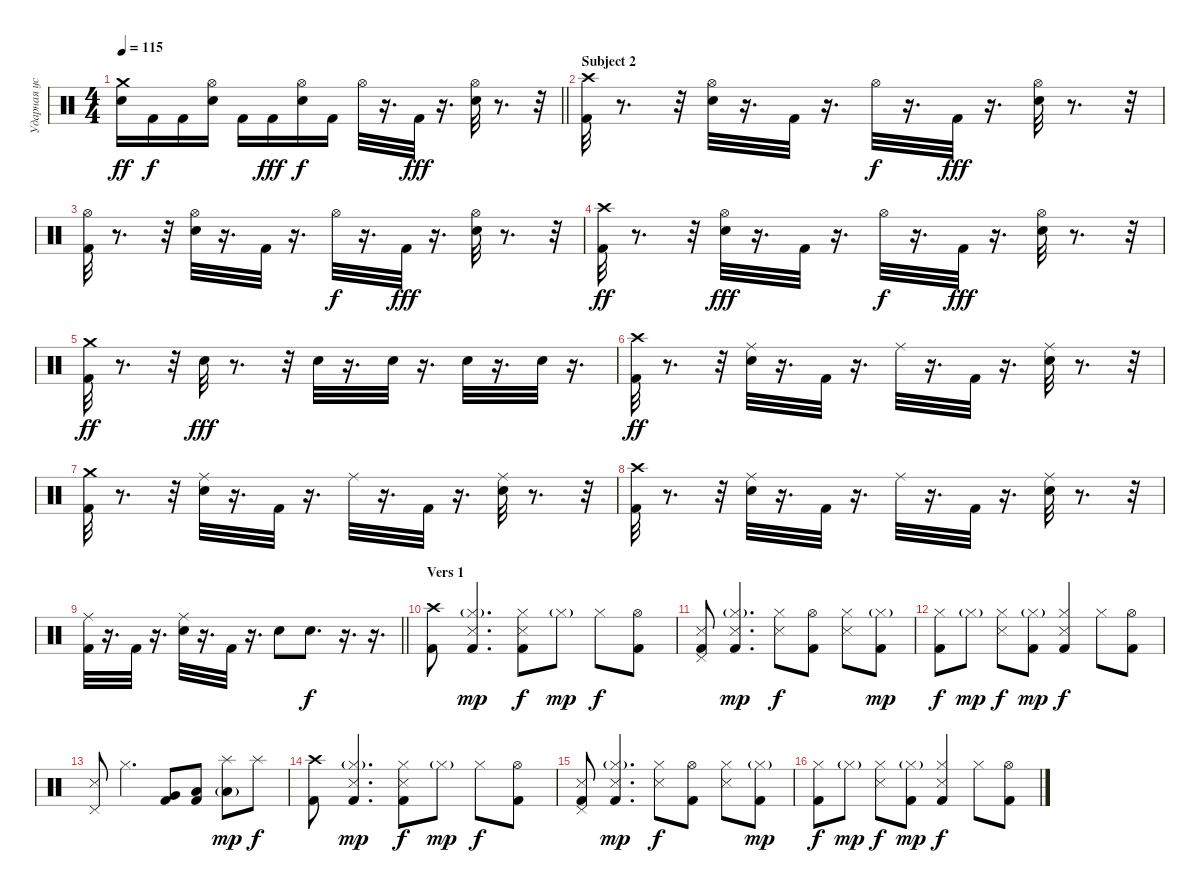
\track ("Ударная установка" "Ударная ус") {instrument percussion}
\staff {score}
\articulation defaults
\ts (4 4)
\tempo 115
\clef neutral
\barLineRight lightlight
\ks c
("Snare (hit) 2" "Crash medium (hit)").16{dy ff} "Kick (hit) 2".16{dy f} "Kick (hit) 2".16 ("Snare (hit) 2" "Hi-Hat (open)").16 "Kick (hit) 2".16 "Kick (hit) 2".16{dy fff} ("Snare (hit) 2" "Hi-Hat (open)").16{dy f} "Kick (hit) 2".16 "Hi-Hat (open)".32 r.16{d} "Kick (hit) 2".32{dy fff} r.16{d} ("Snare (hit) 2" "Hi-Hat (open)").32 r.8{d} r.32 |
\section ("" "Subject 2")
("Crash high (hit)" "Kick (hit) 2").32 r.8{d} r.32 ("Hi-Hat (open)" "Snare (hit) 2").32 r.16{d} "Kick (hit) 2".32 r.16{d} "Hi-Hat (open)".32{dy f} r.16{d} "Kick (hit) 2".32{dy fff} r.16{d} ("Hi-Hat (open)" "Snare (hit) 2").32 r.8{d} r.32 |
("Hi-Hat (open)" "Kick (hit) 2").32 r.8{d} r.32 ("Hi-Hat (open)" "Snare (hit) 2").32 r.16{d} "Kick (hit) 2".32 r.16{d} "Hi-Hat (open)".32{dy f} r.16{d} "Kick (hit) 2".32{dy fff} r.16{d} ("Hi-Hat (open)" "Snare (hit) 2").32 r.8{d} r.32 |
("Kick (hit) 2" "Crash high (hit)").32{dy ff} r.8{d} r.32 ("Snare (hit) 2" "Hi-Hat (open)").32{dy fff} r.16{d} "Kick (hit) 2".32 r.16{d} "Hi-Hat (open)".32{dy f} r.16{d} "Kick (hit) 2".32{dy fff} r.16{d} ("Snare (hit) 2" "Hi-Hat (open)").32 r.8{d} r.32 |
("Kick (hit) 2" "Crash medium (hit)").32{dy ff} r.8{d} r.32 "Snare (hit) 2".32{dy fff} r.8{d} r.32 "Snare (hit) 2".32 r.16{d} "Snare (hit) 2".32 r.16{d} "Snare (hit) 2".32 r.16{d} "Snare (hit) 2".32 r.16{d} |
("Kick (hit) 2" "Crash high (hit)").32{dy ff} r.8{d} r.32 ("Ride (middle)" "Snare (hit) 2").32 r.16{d} "Kick (hit) 2".32 r.16{d} "Ride (middle)".32 r.16{d} "Kick (hit) 2".32 r.16{d} ("Ride (middle)" "Snare (hit) 2").32 r.8{d} r.32 |
("Crash medium (hit)" "Kick (hit) 2").32 r.8{d} r.32 ("Snare (hit) 2" "Ride (middle)").32 r.16{d} "Kick (hit) 2".32 r.16{d} "Ride (middle)".32 r.16{d} "Kick (hit) 2".32 r.16{d} ("Snare (hit) 2" "Ride (middle)").32 r.8{d} r.32 |
("Kick (hit) 2" "Crash high (hit)").32 r.8{d} r.32 ("Snare (hit) 2" "Ride (middle)").32 r.16{d} "Kick (hit) 2".32 r.16{d} "Ride (middle)".32 r.16{d} "Kick (hit) 2".32 r.16{d} ("Snare (hit) 2" "Ride (middle)").32 r.8{d} r.32 |
\barLineRight lightlight
("Ride (middle)" "Kick (hit) 2").32 r.16{d} "Kick (hit) 2".32 r.16{d} ("Ride (middle)" "Snare (hit) 2").32 r.16{d} "Kick (hit) 2".32 r.16{d} "Snare (hit) 2".8 "Snare (hit) 2".8{d dy f} r.16{d} r.16{d} |
\section ("" "Vers 1")
("Crash high (hit)" "Kick (hit) 2").8 ("Hi-Hat (closed)"{g} "Snare (side stick) 3" "Kick (hit) 2").4{d dy mp} ("Hi-Hat (closed)" "Snare (side stick) 3" "Kick (hit) 2").8{dy f} "Hi-Hat (closed)"{g}.8{dy mp} "Hi-Hat (closed)".8{dy f} ("Hi-Hat (open)" "Kick (hit) 2").8 |
("Pedal Hi-Hat (hit)" "Snare (side stick) 3" "Kick (hit) 2").8 ("Hi-Hat (closed)"{g} "Snare (side stick) 3" "Kick (hit) 2").4{d dy mp} ("Hi-Hat (closed)" "Snare (side stick) 3").8{dy f} ("Hi-Hat (open)" "Kick (hit) 2").8 ("Hi-Hat (closed)" "Snare (side stick) 3").8 ("Hi-Hat (closed)"{g} "Kick (hit) 2").8{dy mp} |
("Hi-Hat (closed)" "Kick (hit) 2").8{dy f} "Hi-Hat (closed)"{g}.8{dy mp} ("Hi-Hat (closed)" "Snare (side stick) 3").8{dy f} ("Hi-Hat (closed)"{g} "Kick (hit) 2").8{dy mp} ("Hi-Hat (closed)" "Snare (side stick) 3" "Kick (hit) 2").4{dy f} "Hi-Hat (closed)".8 ("Hi-Hat (open)" "Kick (hit) 2").8 |
("Pedal Hi-Hat (hit)" "Snare (side stick) 3").8 "Hi-Hat (closed)".4{d} ("Very Low Tom (hit)" "Kick (hit) 2").8 ("Low Floor Tom (hit)" "Kick (hit) 2").8 ("Splash (hit)" "Low Floor Tom (hit)"{g}).8{dy mp} "Splash (hit)".8{dy f} |
("Crash high (hit)" "Kick (hit) 2").8 ("Hi-Hat (closed)"{g} "Snare (side stick) 3" "Kick (hit) 2").4{d dy mp} ("Hi-Hat (closed)" "Snare (side stick) 3" "Kick (hit) 2").8{dy f} "Hi-Hat (closed)"{g}.8{dy mp} "Hi-Hat (closed)".8{dy f} ("Hi-Hat (open)" "Kick (hit) 2").8 |
("Pedal Hi-Hat (hit)" "Snare (side stick) 3" "Kick (hit) 2").8 ("Hi-Hat (closed)"{g} "Snare (side stick) 3" "Kick (hit) 2").4{d dy mp} ("Hi-Hat (closed)" "Snare (side stick) 3").8{dy f} ("Hi-Hat (open)" "Kick (hit) 2").8 ("Hi-Hat (closed)" "Snare (side stick) 3").8 ("Hi-Hat (closed)"{g} "Kick (hit) 2").8{dy mp} |
("Hi-Hat (closed)" "Kick (hit) 2").8{dy f} "Hi-Hat (closed)"{g}.8{dy mp} ("Hi-Hat (closed)" "Snare (side stick) 3").8{dy f} ("Hi-Hat (closed)"{g} "Kick (hit) 2").8{dy mp} ("Hi-Hat (closed)" "Snare (side stick) 3" "Kick (hit) 2").4{dy f} "Hi-Hat (closed)".8 ("Hi-Hat (open)" "Kick (hit) 2").8
